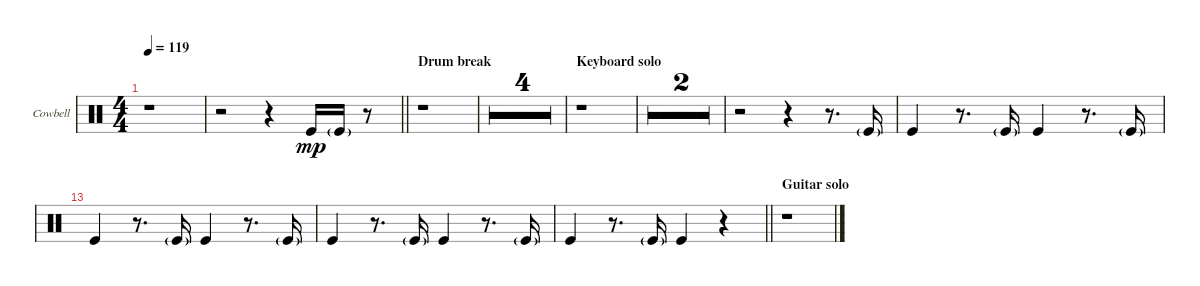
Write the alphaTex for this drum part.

\defaultSystemsLayout 4
\bracketExtendMode groupsimilarinstruments
\useSystemSignSeparator
\multiBarRest
\multiTrackTrackNamePolicy allsystems
\firstSystemTrackNameMode fullname
\firstSystemTrackNameOrientation horizontal
\otherSystemsTrackNameOrientation horizontal
\defaultBarNumberDisplay FirstOfSystem
\track ("Cowbell" "Cowbell") {multiBarRest instrument percussion}
\staff {score}
\articulation defaults
\ts (4 4)
\tempo 119
\clef neutral
\ks aminor
r.1{dy mp} |
\barLineRight lightlight
r.2 r.4 "Kick (hit)".16 "Kick (hit)"{g}.16 r.8 |
\section ("" "Drum break")
r.1 |
r.1 |
r.1 |
r.1 |
\barLineRight lightlight
r.1 |
\section ("" "Keyboard solo")
r.1 |
r.1 |
r.1 |
r.2 r.4 r.8{d} "Kick (hit)"{g}.16 |
"Kick (hit)".4 r.8{d} "Kick (hit)"{g}.16 "Kick (hit)".4 r.8{d} "Kick (hit)"{g}.16 |
"Kick (hit)".4 r.8{d} "Kick (hit)"{g}.16 "Kick (hit)".4 r.8{d} "Kick (hit)"{g}.16 |
"Kick (hit)".4 r.8{d} "Kick (hit)"{g}.16 "Kick (hit)".4 r.8{d} "Kick (hit)"{g}.16 |
\barLineRight lightlight "Kick (hit)".4
r.8{d} "Kick (hit)"{g}.16 "Kick (hit)".4 r.4 |
\section ("" "Guitar solo")
r.1
